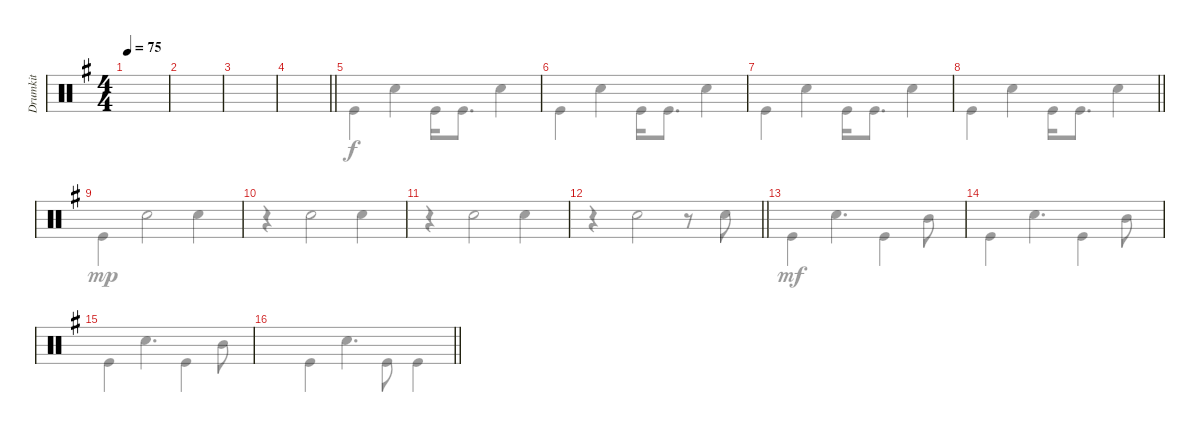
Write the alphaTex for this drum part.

\track ("Drumkit" "Drumkit") {instrument percussion}
\staff {score}
\articulation defaults
\voice
\ts (4 4)
\tempo 75
\clef neutral
\ks eminor
|
|
|
\barLineRight lightlight
|
|
|
|
\barLineRight lightlight
|
|
|
|
\barLineRight lightlight
|
|
|
|
\barLineRight lightlight
\voice
\clef neutral
\ks eminor
|
|
|
\barLineRight lightlight
|
"Kick (hit)".4 "Snare (hit) 2".4 "Kick (hit)".16 "Kick (hit)".8{d} "Snare (hit) 2".4 |
"Kick (hit)".4 "Snare (hit) 2".4 "Kick (hit)".16 "Kick (hit)".8{d} "Snare (hit) 2".4 |
"Kick (hit)".4 "Snare (hit) 2".4 "Kick (hit)".16 "Kick (hit)".8{d} "Snare (hit) 2".4 |
\barLineRight lightlight "Kick (hit)".4 "Snare (hit) 2".4 "Kick (hit)".16 "Kick (hit)".8{d} "Snare (hit) 2".4
|
"Kick (hit)".4{dy mp} "Snare (hit) 2".2 "Snare (hit) 2".4 |
r.4 "Snare (hit) 2".2 "Snare (hit) 2".4 |
r.4 "Snare (hit) 2".2 "Snare (hit) 2".4 |
\barLineRight lightlight
r.4 "Snare (hit) 2".2 r.8 "Snare (hit) 2".8 |
"Kick (hit)".4{dy mf} "Snare (hit) 2".4{d} "Kick (hit)".4 "Mid Tom (hit)".8 |
"Kick (hit)".4 "Snare (hit) 2".4{d} "Kick (hit)".4 "Mid Tom (hit)".8 |
"Kick (hit)".4 "Snare (hit) 2".4{d} "Kick (hit)".4 "Mid Tom (hit)".8 |
\barLineRight lightlight "Kick (hit)".4 "Snare (hit) 2".4{d} "Kick (hit)".8 "Kick (hit)".4
